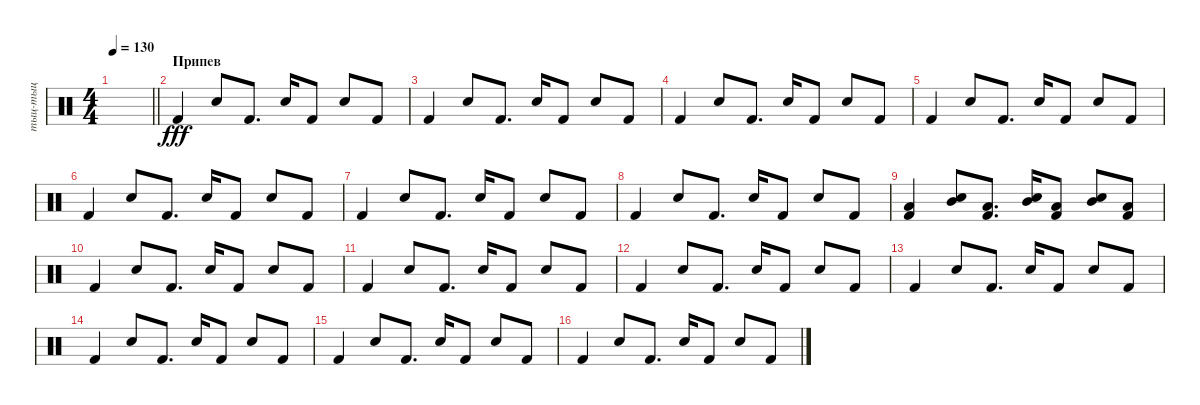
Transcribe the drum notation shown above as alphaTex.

\track ("тыц-тыц" "тыц-тыц") {instrument percussion}
\staff {score}
\articulation defaults
\ts (4 4)
\tempo 130
\clef neutral
\barLineRight lightlight
\ks c
|
\section ("" "Припев")
"Kick (hit) 2".4{dy fff} "Snare (hit) 2".8 "Kick (hit) 2".8{d} "Snare (hit) 2".16 "Kick (hit) 2".8 "Snare (hit) 2".8 "Kick (hit) 2".8 |
"Kick (hit) 2".4 "Snare (hit) 2".8 "Kick (hit) 2".8{d} "Snare (hit) 2".16 "Kick (hit) 2".8 "Snare (hit) 2".8 "Kick (hit) 2".8 |
"Kick (hit) 2".4 "Snare (hit) 2".8 "Kick (hit) 2".8{d} "Snare (hit) 2".16 "Kick (hit) 2".8 "Snare (hit) 2".8 "Kick (hit) 2".8 |
"Kick (hit) 2".4 "Snare (hit) 2".8 "Kick (hit) 2".8{d} "Snare (hit) 2".16 "Kick (hit) 2".8 "Snare (hit) 2".8 "Kick (hit) 2".8 |
"Kick (hit) 2".4 "Snare (hit) 2".8 "Kick (hit) 2".8{d} "Snare (hit) 2".16 "Kick (hit) 2".8 "Snare (hit) 2".8 "Kick (hit) 2".8 |
"Kick (hit) 2".4 "Snare (hit) 2".8 "Kick (hit) 2".8{d} "Snare (hit) 2".16 "Kick (hit) 2".8 "Snare (hit) 2".8 "Kick (hit) 2".8 |
"Kick (hit) 2".4 "Snare (hit) 2".8 "Kick (hit) 2".8{d} "Snare (hit) 2".16 "Kick (hit) 2".8 "Snare (hit) 2".8 "Kick (hit) 2".8 |
("Low Tom (hit)" "Kick (hit) 2").4 ("Mid Tom (hit)" "Snare (hit) 2").8 ("Low Tom (hit)" "Kick (hit) 2").8{d} ("Mid Tom (hit)" "Snare (hit) 2").16 ("Low Tom (hit)" "Kick (hit) 2").8 ("Mid Tom (hit)" "Snare (hit) 2").8 ("Low Tom (hit)" "Kick (hit) 2").8 |
"Kick (hit) 2".4 "Snare (hit) 2".8 "Kick (hit) 2".8{d} "Snare (hit) 2".16 "Kick (hit) 2".8 "Snare (hit) 2".8 "Kick (hit) 2".8 |
"Kick (hit) 2".4 "Snare (hit) 2".8 "Kick (hit) 2".8{d} "Snare (hit) 2".16 "Kick (hit) 2".8 "Snare (hit) 2".8 "Kick (hit) 2".8 |
"Kick (hit) 2".4 "Snare (hit) 2".8 "Kick (hit) 2".8{d} "Snare (hit) 2".16 "Kick (hit) 2".8 "Snare (hit) 2".8 "Kick (hit) 2".8 |
"Kick (hit) 2".4 "Snare (hit) 2".8 "Kick (hit) 2".8{d} "Snare (hit) 2".16 "Kick (hit) 2".8 "Snare (hit) 2".8 "Kick (hit) 2".8 |
"Kick (hit) 2".4 "Snare (hit) 2".8 "Kick (hit) 2".8{d} "Snare (hit) 2".16 "Kick (hit) 2".8 "Snare (hit) 2".8 "Kick (hit) 2".8 |
"Kick (hit) 2".4 "Snare (hit) 2".8 "Kick (hit) 2".8{d} "Snare (hit) 2".16 "Kick (hit) 2".8 "Snare (hit) 2".8 "Kick (hit) 2".8 |
"Kick (hit) 2".4 "Snare (hit) 2".8 "Kick (hit) 2".8{d} "Snare (hit) 2".16 "Kick (hit) 2".8 "Snare (hit) 2".8 "Kick (hit) 2".8
